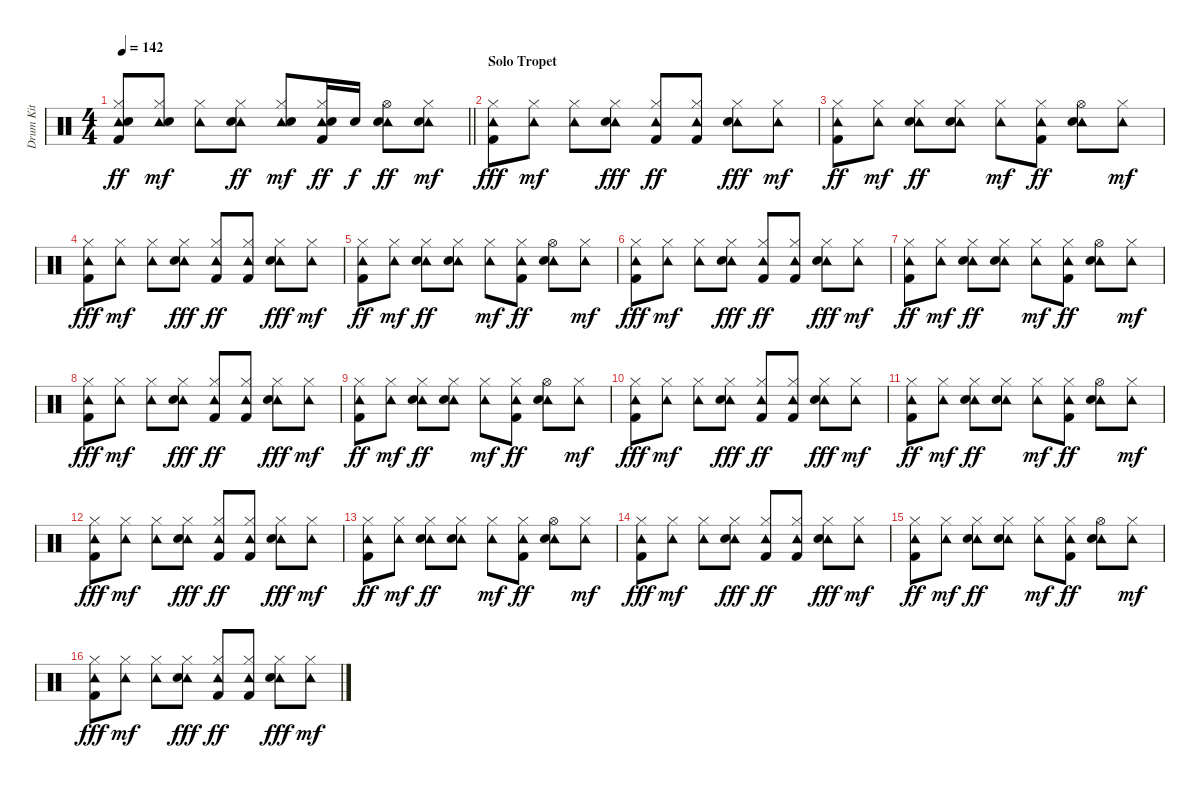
\track ("Drum Kit" "Drum Kit") {instrument percussion}
\staff {score}
\articulation defaults
\ts (4 4)
\tempo 142
\clef neutral
\barLineRight lightlight
\ks c
("Tambourine (hit)" "Hi-Hat (closed)" "Electric Snare (hit)" "Kick (hit) 2").8{dy ff} ("Tambourine (hit)" "Electric Snare (hit)" "Hi-Hat (closed)").8{dy mf} ("Tambourine (hit)" "Hi-Hat (closed)").8 ("Tambourine (hit)" "Hi-Hat (closed)" "Electric Snare (hit)").8{dy ff} ("Tambourine (hit)" "Electric Snare (hit)" "Hi-Hat (closed)").8{dy mf} ("Tambourine (hit)" "Electric Snare (hit)" "Hi-Hat (closed)" "Kick (hit) 2").16{dy ff} "Electric Snare (hit)".16{dy f} ("Tambourine (hit)" "Hi-Hat (open)" "Electric Snare (hit)").8{dy ff} ("Tambourine (hit)" "Electric Snare (hit)" "Hi-Hat (closed)").8{dy mf} |
\section ("" "Solo Tropet")
("Hi-Hat (closed)" "Tambourine (hit)" "Kick (hit) 2").8{dy fff} ("Tambourine (hit)" "Hi-Hat (closed)").8{dy mf} ("Tambourine (hit)" "Hi-Hat (closed)").8 ("Tambourine (hit)" "Hi-Hat (closed)" "Electric Snare (hit)").8{dy fff} ("Tambourine (hit)" "Hi-Hat (closed)" "Kick (hit) 2").8{dy ff} ("Tambourine (hit)" "Hi-Hat (closed)" "Kick (hit) 2").8 ("Tambourine (hit)" "Hi-Hat (closed)" "Electric Snare (hit)").8{dy fff} ("Tambourine (hit)" "Hi-Hat (closed)").8{dy mf} |
("Tambourine (hit)" "Hi-Hat (closed)" "Kick (hit) 2").8{dy ff} ("Tambourine (hit)" "Hi-Hat (closed)").8{dy mf} ("Tambourine (hit)" "Hi-Hat (closed)" "Electric Snare (hit)").8{dy ff} ("Tambourine (hit)" "Hi-Hat (closed)" "Electric Snare (hit)").8 ("Tambourine (hit)" "Hi-Hat (closed)").8{dy mf} ("Tambourine (hit)" "Hi-Hat (closed)" "Kick (hit) 2").8{dy ff} ("Tambourine (hit)" "Hi-Hat (open)" "Electric Snare (hit)").8 ("Tambourine (hit)" "Hi-Hat (closed)").8{dy mf} |
("Hi-Hat (closed)" "Tambourine (hit)" "Kick (hit) 2").8{dy fff} ("Tambourine (hit)" "Hi-Hat (closed)").8{dy mf} ("Tambourine (hit)" "Hi-Hat (closed)").8 ("Tambourine (hit)" "Hi-Hat (closed)" "Electric Snare (hit)").8{dy fff} ("Tambourine (hit)" "Hi-Hat (closed)" "Kick (hit) 2").8{dy ff} ("Tambourine (hit)" "Hi-Hat (closed)" "Kick (hit) 2").8 ("Tambourine (hit)" "Hi-Hat (closed)" "Electric Snare (hit)").8{dy fff} ("Tambourine (hit)" "Hi-Hat (closed)").8{dy mf} |
("Tambourine (hit)" "Hi-Hat (closed)" "Kick (hit) 2").8{dy ff} ("Tambourine (hit)" "Hi-Hat (closed)").8{dy mf} ("Tambourine (hit)" "Hi-Hat (closed)" "Electric Snare (hit)").8{dy ff} ("Tambourine (hit)" "Hi-Hat (closed)" "Electric Snare (hit)").8 ("Tambourine (hit)" "Hi-Hat (closed)").8{dy mf} ("Tambourine (hit)" "Hi-Hat (closed)" "Kick (hit) 2").8{dy ff} ("Tambourine (hit)" "Hi-Hat (open)" "Electric Snare (hit)").8 ("Tambourine (hit)" "Hi-Hat (closed)").8{dy mf} |
("Hi-Hat (closed)" "Tambourine (hit)" "Kick (hit) 2").8{dy fff} ("Tambourine (hit)" "Hi-Hat (closed)").8{dy mf} ("Tambourine (hit)" "Hi-Hat (closed)").8 ("Tambourine (hit)" "Hi-Hat (closed)" "Electric Snare (hit)").8{dy fff} ("Tambourine (hit)" "Hi-Hat (closed)" "Kick (hit) 2").8{dy ff} ("Tambourine (hit)" "Hi-Hat (closed)" "Kick (hit) 2").8 ("Tambourine (hit)" "Hi-Hat (closed)" "Electric Snare (hit)").8{dy fff} ("Tambourine (hit)" "Hi-Hat (closed)").8{dy mf} |
("Tambourine (hit)" "Hi-Hat (closed)" "Kick (hit) 2").8{dy ff} ("Tambourine (hit)" "Hi-Hat (closed)").8{dy mf} ("Tambourine (hit)" "Hi-Hat (closed)" "Electric Snare (hit)").8{dy ff} ("Tambourine (hit)" "Hi-Hat (closed)" "Electric Snare (hit)").8 ("Tambourine (hit)" "Hi-Hat (closed)").8{dy mf} ("Tambourine (hit)" "Hi-Hat (closed)" "Kick (hit) 2").8{dy ff} ("Tambourine (hit)" "Hi-Hat (open)" "Electric Snare (hit)").8 ("Tambourine (hit)" "Hi-Hat (closed)").8{dy mf} |
("Hi-Hat (closed)" "Tambourine (hit)" "Kick (hit) 2").8{dy fff} ("Tambourine (hit)" "Hi-Hat (closed)").8{dy mf} ("Tambourine (hit)" "Hi-Hat (closed)").8 ("Tambourine (hit)" "Hi-Hat (closed)" "Electric Snare (hit)").8{dy fff} ("Tambourine (hit)" "Hi-Hat (closed)" "Kick (hit) 2").8{dy ff} ("Tambourine (hit)" "Hi-Hat (closed)" "Kick (hit) 2").8 ("Tambourine (hit)" "Hi-Hat (closed)" "Electric Snare (hit)").8{dy fff} ("Tambourine (hit)" "Hi-Hat (closed)").8{dy mf} |
("Tambourine (hit)" "Hi-Hat (closed)" "Kick (hit) 2").8{dy ff} ("Tambourine (hit)" "Hi-Hat (closed)").8{dy mf} ("Tambourine (hit)" "Hi-Hat (closed)" "Electric Snare (hit)").8{dy ff} ("Tambourine (hit)" "Hi-Hat (closed)" "Electric Snare (hit)").8 ("Tambourine (hit)" "Hi-Hat (closed)").8{dy mf} ("Tambourine (hit)" "Hi-Hat (closed)" "Kick (hit) 2").8{dy ff} ("Tambourine (hit)" "Hi-Hat (open)" "Electric Snare (hit)").8 ("Tambourine (hit)" "Hi-Hat (closed)").8{dy mf} |
("Hi-Hat (closed)" "Tambourine (hit)" "Kick (hit) 2").8{dy fff} ("Tambourine (hit)" "Hi-Hat (closed)").8{dy mf} ("Tambourine (hit)" "Hi-Hat (closed)").8 ("Tambourine (hit)" "Hi-Hat (closed)" "Electric Snare (hit)").8{dy fff} ("Tambourine (hit)" "Hi-Hat (closed)" "Kick (hit) 2").8{dy ff} ("Tambourine (hit)" "Hi-Hat (closed)" "Kick (hit) 2").8 ("Tambourine (hit)" "Hi-Hat (closed)" "Electric Snare (hit)").8{dy fff} ("Tambourine (hit)" "Hi-Hat (closed)").8{dy mf} |
("Tambourine (hit)" "Hi-Hat (closed)" "Kick (hit) 2").8{dy ff} ("Tambourine (hit)" "Hi-Hat (closed)").8{dy mf} ("Tambourine (hit)" "Hi-Hat (closed)" "Electric Snare (hit)").8{dy ff} ("Tambourine (hit)" "Hi-Hat (closed)" "Electric Snare (hit)").8 ("Tambourine (hit)" "Hi-Hat (closed)").8{dy mf} ("Tambourine (hit)" "Hi-Hat (closed)" "Kick (hit) 2").8{dy ff} ("Tambourine (hit)" "Hi-Hat (open)" "Electric Snare (hit)").8 ("Tambourine (hit)" "Hi-Hat (closed)").8{dy mf} |
("Hi-Hat (closed)" "Tambourine (hit)" "Kick (hit) 2").8{dy fff} ("Tambourine (hit)" "Hi-Hat (closed)").8{dy mf} ("Tambourine (hit)" "Hi-Hat (closed)").8 ("Tambourine (hit)" "Hi-Hat (closed)" "Electric Snare (hit)").8{dy fff} ("Tambourine (hit)" "Hi-Hat (closed)" "Kick (hit) 2").8{dy ff} ("Tambourine (hit)" "Hi-Hat (closed)" "Kick (hit) 2").8 ("Tambourine (hit)" "Hi-Hat (closed)" "Electric Snare (hit)").8{dy fff} ("Tambourine (hit)" "Hi-Hat (closed)").8{dy mf} |
("Tambourine (hit)" "Hi-Hat (closed)" "Kick (hit) 2").8{dy ff} ("Tambourine (hit)" "Hi-Hat (closed)").8{dy mf} ("Tambourine (hit)" "Hi-Hat (closed)" "Electric Snare (hit)").8{dy ff} ("Tambourine (hit)" "Hi-Hat (closed)" "Electric Snare (hit)").8 ("Tambourine (hit)" "Hi-Hat (closed)").8{dy mf} ("Tambourine (hit)" "Hi-Hat (closed)" "Kick (hit) 2").8{dy ff} ("Tambourine (hit)" "Hi-Hat (open)" "Electric Snare (hit)").8 ("Tambourine (hit)" "Hi-Hat (closed)").8{dy mf} |
("Hi-Hat (closed)" "Tambourine (hit)" "Kick (hit) 2").8{dy fff} ("Tambourine (hit)" "Hi-Hat (closed)").8{dy mf} ("Tambourine (hit)" "Hi-Hat (closed)").8 ("Tambourine (hit)" "Hi-Hat (closed)" "Electric Snare (hit)").8{dy fff} ("Tambourine (hit)" "Hi-Hat (closed)" "Kick (hit) 2").8{dy ff} ("Tambourine (hit)" "Hi-Hat (closed)" "Kick (hit) 2").8 ("Tambourine (hit)" "Hi-Hat (closed)" "Electric Snare (hit)").8{dy fff} ("Tambourine (hit)" "Hi-Hat (closed)").8{dy mf} |
("Tambourine (hit)" "Hi-Hat (closed)" "Kick (hit) 2").8{dy ff} ("Tambourine (hit)" "Hi-Hat (closed)").8{dy mf} ("Tambourine (hit)" "Hi-Hat (closed)" "Electric Snare (hit)").8{dy ff} ("Tambourine (hit)" "Hi-Hat (closed)" "Electric Snare (hit)").8 ("Tambourine (hit)" "Hi-Hat (closed)").8{dy mf} ("Tambourine (hit)" "Hi-Hat (closed)" "Kick (hit) 2").8{dy ff} ("Tambourine (hit)" "Hi-Hat (open)" "Electric Snare (hit)").8 ("Tambourine (hit)" "Hi-Hat (closed)").8{dy mf} |
("Hi-Hat (closed)" "Tambourine (hit)" "Kick (hit) 2").8{dy fff} ("Tambourine (hit)" "Hi-Hat (closed)").8{dy mf} ("Tambourine (hit)" "Hi-Hat (closed)").8 ("Tambourine (hit)" "Hi-Hat (closed)" "Electric Snare (hit)").8{dy fff} ("Tambourine (hit)" "Hi-Hat (closed)" "Kick (hit) 2").8{dy ff} ("Tambourine (hit)" "Hi-Hat (closed)" "Kick (hit) 2").8 ("Tambourine (hit)" "Hi-Hat (closed)" "Electric Snare (hit)").8{dy fff} ("Tambourine (hit)" "Hi-Hat (closed)").8{dy mf}
